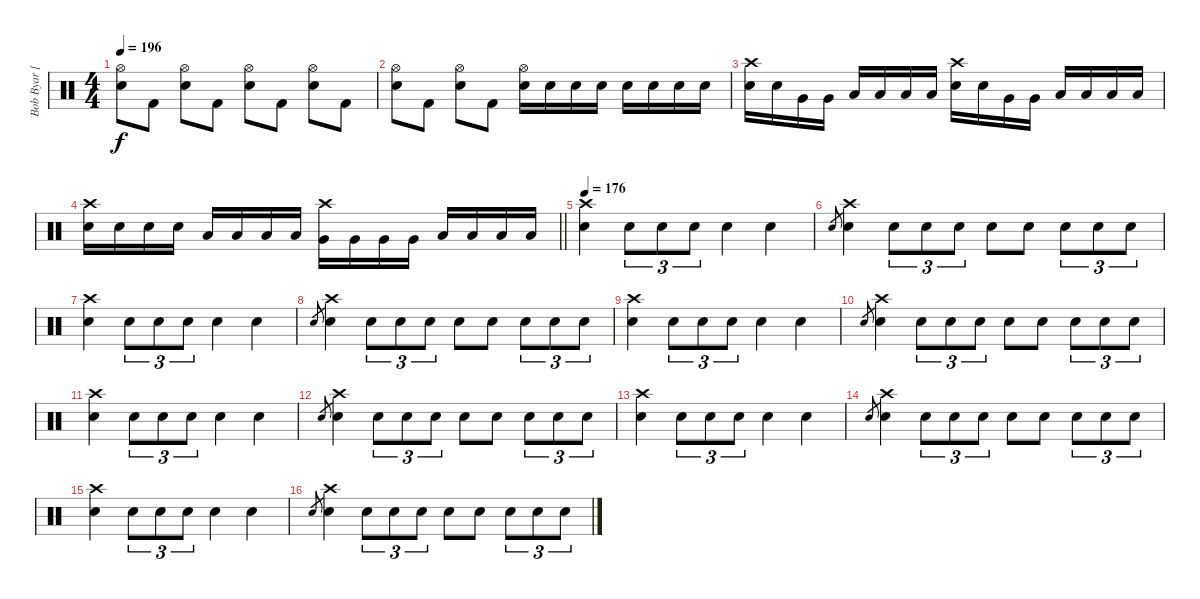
\track ("Bob Byar [Drums]" "Bob Byar [") {instrument percussion}
\staff {score}
\articulation defaults
\ts (4 4)
\tempo 196
\clef neutral
\ks c
("Hi-Hat (open)" "Electric Snare (hit)").8{dy f} "Kick (hit) 2".8 ("Hi-Hat (open)" "Electric Snare (hit)").8 "Kick (hit) 2".8 ("Hi-Hat (open)" "Electric Snare (hit)").8 "Kick (hit) 2".8 ("Hi-Hat (open)" "Electric Snare (hit)").8 "Kick (hit) 2".8 |
("Hi-Hat (open)" "Electric Snare (hit)").8 "Kick (hit) 2".8 ("Hi-Hat (open)" "Electric Snare (hit)").8 "Kick (hit) 2".8 ("Hi-Hat (open)" "Electric Snare (hit)").16 "Electric Snare (hit)".16 "Electric Snare (hit)".16 "Electric Snare (hit)".16 "Electric Snare (hit)".16 "Electric Snare (hit)".16 "Electric Snare (hit)".16 "Electric Snare (hit)".16 |
("Crash high (hit)" "Electric Snare (hit)").16 "Electric Snare (hit)".16 "Very Low Tom (hit)".16 "Very Low Tom (hit)".16 "Low Floor Tom (hit)".16 "Low Floor Tom (hit)".16 "Low Floor Tom (hit)".16 "Low Floor Tom (hit)".16 ("Crash high (hit)" "Electric Snare (hit)").16 "Electric Snare (hit)".16 "Very Low Tom (hit)".16 "Very Low Tom (hit)".16 "Low Floor Tom (hit)".16 "Low Floor Tom (hit)".16 "Low Floor Tom (hit)".16 "Low Floor Tom (hit)".16 |
\barLineRight lightlight
("Crash high (hit)" "Electric Snare (hit)").16 "Electric Snare (hit)".16 "Electric Snare (hit)".16 "Electric Snare (hit)".16 "Low Tom (hit)".16 "Low Tom (hit)".16 "Low Tom (hit)".16 "Low Tom (hit)".16 ("Crash high (hit)" "Very Low Tom (hit)").16 "Very Low Tom (hit)".16 "Very Low Tom (hit)".16 "Very Low Tom (hit)".16 "Low Floor Tom (hit)".16 "Low Floor Tom (hit)".16 "Low Floor Tom (hit)".16 "Low Floor Tom (hit)".16 |
\tempo 176
("Crash high (hit)" "Electric Snare (hit)").4 "Electric Snare (hit)".8{tu (3 2)} "Electric Snare (hit)".8{tu (3 2)} "Electric Snare (hit)".8{tu (3 2)} "Electric Snare (hit)".4 "Electric Snare (hit)".4 |
"Electric Snare (hit)".8{gr} ("Crash high (hit)" "Electric Snare (hit)").4 "Electric Snare (hit)".8{tu (3 2)} "Electric Snare (hit)".8{tu (3 2)} "Electric Snare (hit)".8{tu (3 2)} "Electric Snare (hit)".8 "Electric Snare (hit)".8 "Electric Snare (hit)".8{tu (3 2)} "Electric Snare (hit)".8{tu (3 2)} "Electric Snare (hit)".8{tu (3 2)} |
("Crash high (hit)" "Electric Snare (hit)").4 "Electric Snare (hit)".8{tu (3 2)} "Electric Snare (hit)".8{tu (3 2)} "Electric Snare (hit)".8{tu (3 2)} "Electric Snare (hit)".4 "Electric Snare (hit)".4 |
"Electric Snare (hit)".8{gr} ("Crash high (hit)" "Electric Snare (hit)").4 "Electric Snare (hit)".8{tu (3 2)} "Electric Snare (hit)".8{tu (3 2)} "Electric Snare (hit)".8{tu (3 2)} "Electric Snare (hit)".8 "Electric Snare (hit)".8 "Electric Snare (hit)".8{tu (3 2)} "Electric Snare (hit)".8{tu (3 2)} "Electric Snare (hit)".8{tu (3 2)} |
("Crash high (hit)" "Electric Snare (hit)").4 "Electric Snare (hit)".8{tu (3 2)} "Electric Snare (hit)".8{tu (3 2)} "Electric Snare (hit)".8{tu (3 2)} "Electric Snare (hit)".4 "Electric Snare (hit)".4 |
"Electric Snare (hit)".8{gr} ("Crash high (hit)" "Electric Snare (hit)").4 "Electric Snare (hit)".8{tu (3 2)} "Electric Snare (hit)".8{tu (3 2)} "Electric Snare (hit)".8{tu (3 2)} "Electric Snare (hit)".8 "Electric Snare (hit)".8 "Electric Snare (hit)".8{tu (3 2)} "Electric Snare (hit)".8{tu (3 2)} "Electric Snare (hit)".8{tu (3 2)} |
("Crash high (hit)" "Electric Snare (hit)").4 "Electric Snare (hit)".8{tu (3 2)} "Electric Snare (hit)".8{tu (3 2)} "Electric Snare (hit)".8{tu (3 2)} "Electric Snare (hit)".4 "Electric Snare (hit)".4 |
"Electric Snare (hit)".8{gr} ("Crash high (hit)" "Electric Snare (hit)").4 "Electric Snare (hit)".8{tu (3 2)} "Electric Snare (hit)".8{tu (3 2)} "Electric Snare (hit)".8{tu (3 2)} "Electric Snare (hit)".8 "Electric Snare (hit)".8 "Electric Snare (hit)".8{tu (3 2)} "Electric Snare (hit)".8{tu (3 2)} "Electric Snare (hit)".8{tu (3 2)} |
("Crash high (hit)" "Electric Snare (hit)").4 "Electric Snare (hit)".8{tu (3 2)} "Electric Snare (hit)".8{tu (3 2)} "Electric Snare (hit)".8{tu (3 2)} "Electric Snare (hit)".4 "Electric Snare (hit)".4 |
"Electric Snare (hit)".8{gr} ("Crash high (hit)" "Electric Snare (hit)").4 "Electric Snare (hit)".8{tu (3 2)} "Electric Snare (hit)".8{tu (3 2)} "Electric Snare (hit)".8{tu (3 2)} "Electric Snare (hit)".8 "Electric Snare (hit)".8 "Electric Snare (hit)".8{tu (3 2)} "Electric Snare (hit)".8{tu (3 2)} "Electric Snare (hit)".8{tu (3 2)} |
("Crash high (hit)" "Electric Snare (hit)").4 "Electric Snare (hit)".8{tu (3 2)} "Electric Snare (hit)".8{tu (3 2)} "Electric Snare (hit)".8{tu (3 2)} "Electric Snare (hit)".4 "Electric Snare (hit)".4 |
"Electric Snare (hit)".8{gr} ("Crash high (hit)" "Electric Snare (hit)").4 "Electric Snare (hit)".8{tu (3 2)} "Electric Snare (hit)".8{tu (3 2)} "Electric Snare (hit)".8{tu (3 2)} "Electric Snare (hit)".8 "Electric Snare (hit)".8 "Electric Snare (hit)".8{tu (3 2)} "Electric Snare (hit)".8{tu (3 2)} "Electric Snare (hit)".8{tu (3 2)}
